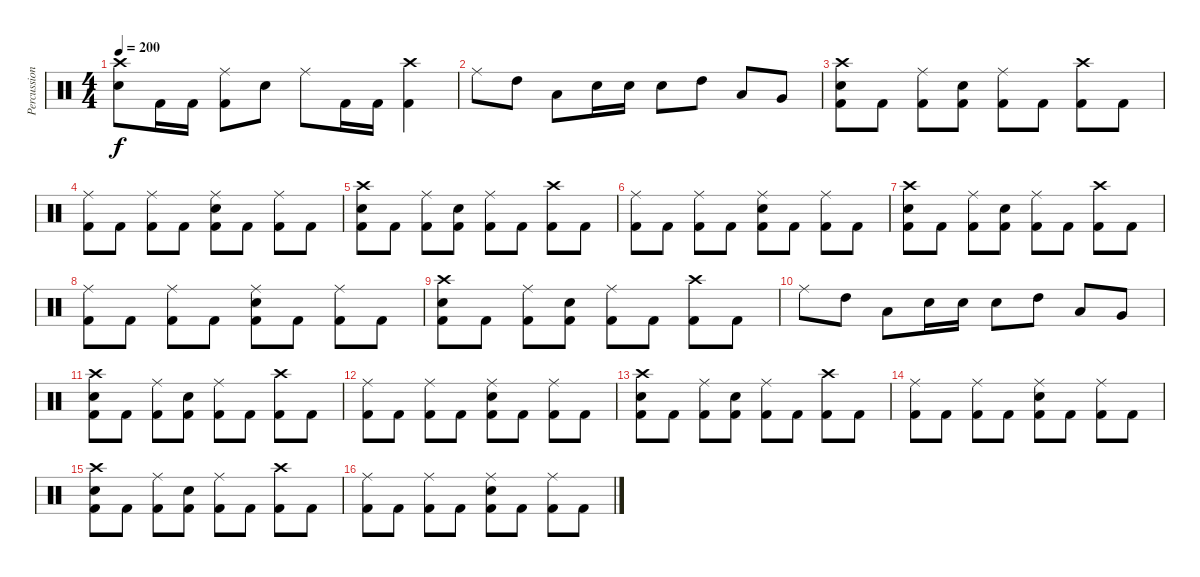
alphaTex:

\track ("Percussion" "Percussion") {instrument percussion}
\staff {score}
\articulation defaults
\ts (4 4)
\tempo 200
\clef neutral
\ks c
("Crash high (hit)" "Snare (hit) 2").8{dy f} "Kick (hit) 2".16 "Kick (hit) 2".16 ("Ride (middle)" "Kick (hit) 2").8 "Snare (hit) 2".8 "Ride (middle)".8 "Kick (hit) 2".16 "Kick (hit) 2".16 ("Crash high (hit)" "Kick (hit) 2").4 |
"Ride (middle)".8 "High Tom (hit)".8 "Low Tom (hit)".8 "Snare (hit) 2".16 "Snare (hit) 2".16 "Snare (hit) 2".8 "High Tom (hit)".8 "Low Tom (hit)".8 "Very Low Tom (hit)".8 |
("Crash high (hit)" "Snare (hit) 2" "Kick (hit) 2").8 "Kick (hit) 2".8 ("Ride (middle)" "Kick (hit) 2").8 ("Snare (hit) 2" "Kick (hit) 2").8 ("Ride (middle)" "Kick (hit) 2").8 "Kick (hit) 2".8 ("Crash high (hit)" "Kick (hit) 2").8 "Kick (hit) 2".8 |
("Ride (middle)" "Kick (hit) 2").8 "Kick (hit) 2".8 ("Ride (middle)" "Kick (hit) 2").8 "Kick (hit) 2".8 ("Ride (middle)" "Snare (hit) 2" "Kick (hit) 2").8 "Kick (hit) 2".8 ("Ride (middle)" "Kick (hit) 2").8 "Kick (hit) 2".8 |
("Crash high (hit)" "Snare (hit) 2" "Kick (hit) 2").8 "Kick (hit) 2".8 ("Ride (middle)" "Kick (hit) 2").8 ("Snare (hit) 2" "Kick (hit) 2").8 ("Ride (middle)" "Kick (hit) 2").8 "Kick (hit) 2".8 ("Crash high (hit)" "Kick (hit) 2").8 "Kick (hit) 2".8 |
("Ride (middle)" "Kick (hit) 2").8 "Kick (hit) 2".8 ("Ride (middle)" "Kick (hit) 2").8 "Kick (hit) 2".8 ("Ride (middle)" "Snare (hit) 2" "Kick (hit) 2").8 "Kick (hit) 2".8 ("Ride (middle)" "Kick (hit) 2").8 "Kick (hit) 2".8 |
("Crash high (hit)" "Snare (hit) 2" "Kick (hit) 2").8 "Kick (hit) 2".8 ("Ride (middle)" "Kick (hit) 2").8 ("Snare (hit) 2" "Kick (hit) 2").8 ("Ride (middle)" "Kick (hit) 2").8 "Kick (hit) 2".8 ("Crash high (hit)" "Kick (hit) 2").8 "Kick (hit) 2".8 |
("Ride (middle)" "Kick (hit) 2").8 "Kick (hit) 2".8 ("Ride (middle)" "Kick (hit) 2").8 "Kick (hit) 2".8 ("Ride (middle)" "Snare (hit) 2" "Kick (hit) 2").8 "Kick (hit) 2".8 ("Ride (middle)" "Kick (hit) 2").8 "Kick (hit) 2".8 |
("Crash high (hit)" "Snare (hit) 2" "Kick (hit) 2").8 "Kick (hit) 2".8 ("Ride (middle)" "Kick (hit) 2").8 ("Snare (hit) 2" "Kick (hit) 2").8 ("Ride (middle)" "Kick (hit) 2").8 "Kick (hit) 2".8 ("Crash high (hit)" "Kick (hit) 2").8 "Kick (hit) 2".8 |
"Ride (middle)".8 "High Tom (hit)".8 "Low Tom (hit)".8 "Snare (hit) 2".16 "Snare (hit) 2".16 "Snare (hit) 2".8 "High Tom (hit)".8 "Low Tom (hit)".8 "Very Low Tom (hit)".8 |
("Crash high (hit)" "Snare (hit) 2" "Kick (hit) 2").8 "Kick (hit) 2".8 ("Ride (middle)" "Kick (hit) 2").8 ("Snare (hit) 2" "Kick (hit) 2").8 ("Ride (middle)" "Kick (hit) 2").8 "Kick (hit) 2".8 ("Crash high (hit)" "Kick (hit) 2").8 "Kick (hit) 2".8 |
("Ride (middle)" "Kick (hit) 2").8 "Kick (hit) 2".8 ("Ride (middle)" "Kick (hit) 2").8 "Kick (hit) 2".8 ("Ride (middle)" "Snare (hit) 2" "Kick (hit) 2").8 "Kick (hit) 2".8 ("Ride (middle)" "Kick (hit) 2").8 "Kick (hit) 2".8 |
("Crash high (hit)" "Snare (hit) 2" "Kick (hit) 2").8 "Kick (hit) 2".8 ("Ride (middle)" "Kick (hit) 2").8 ("Snare (hit) 2" "Kick (hit) 2").8 ("Ride (middle)" "Kick (hit) 2").8 "Kick (hit) 2".8 ("Crash high (hit)" "Kick (hit) 2").8 "Kick (hit) 2".8 |
("Ride (middle)" "Kick (hit) 2").8 "Kick (hit) 2".8 ("Ride (middle)" "Kick (hit) 2").8 "Kick (hit) 2".8 ("Ride (middle)" "Snare (hit) 2" "Kick (hit) 2").8 "Kick (hit) 2".8 ("Ride (middle)" "Kick (hit) 2").8 "Kick (hit) 2".8 |
("Crash high (hit)" "Snare (hit) 2" "Kick (hit) 2").8 "Kick (hit) 2".8 ("Ride (middle)" "Kick (hit) 2").8 ("Snare (hit) 2" "Kick (hit) 2").8 ("Ride (middle)" "Kick (hit) 2").8 "Kick (hit) 2".8 ("Crash high (hit)" "Kick (hit) 2").8 "Kick (hit) 2".8 |
("Ride (middle)" "Kick (hit) 2").8 "Kick (hit) 2".8 ("Ride (middle)" "Kick (hit) 2").8 "Kick (hit) 2".8 ("Ride (middle)" "Snare (hit) 2" "Kick (hit) 2").8 "Kick (hit) 2".8 ("Ride (middle)" "Kick (hit) 2").8 "Kick (hit) 2".8
